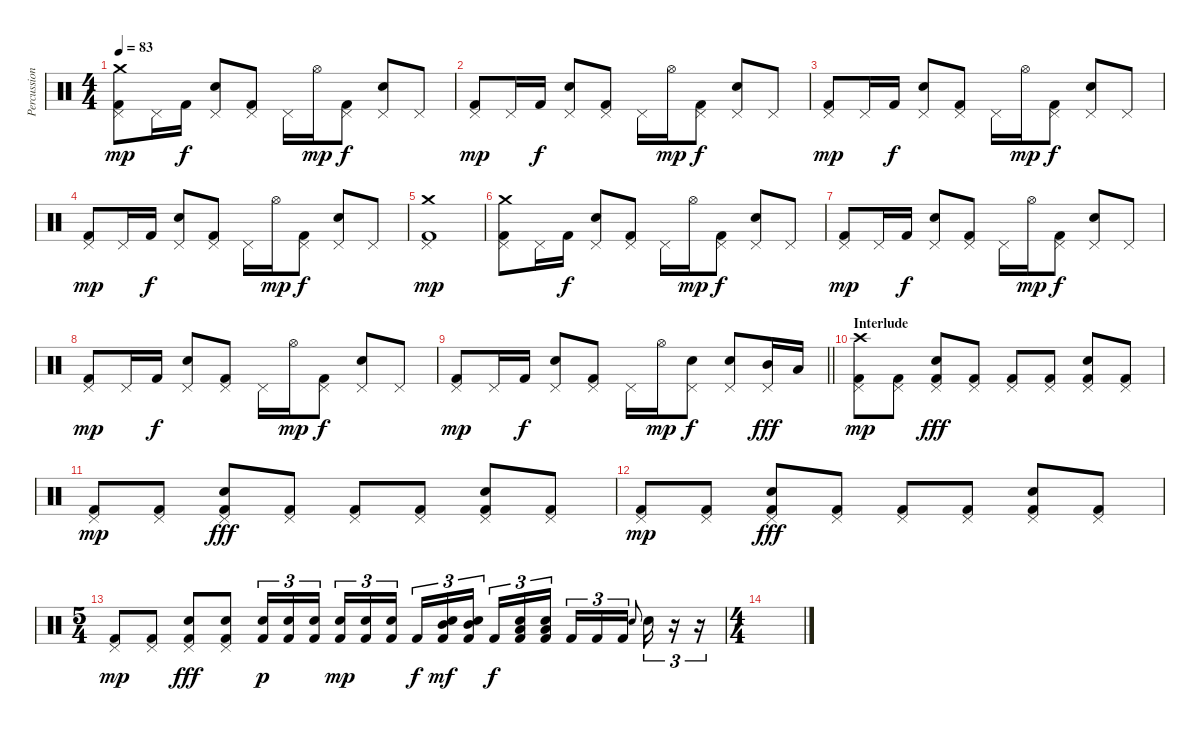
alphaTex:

\track ("Percussion" "Percussion") {instrument percussion}
\staff {score}
\articulation defaults
\ts (4 4)
\tempo 83
\clef neutral
\ks c
("Pedal Hi-Hat (hit)" "Kick (hit) 2" "Crash medium (hit)").8{dy mp} "Pedal Hi-Hat (hit)".16 "Kick (hit) 2".16{dy f} ("Pedal Hi-Hat (hit)" "Electric Snare (hit)").8 ("Pedal Hi-Hat (hit)" "Kick (hit) 2").8 "Pedal Hi-Hat (hit)".16 "Hi-Hat (open)".16{dy mp} ("Pedal Hi-Hat (hit)" "Kick (hit) 2").8{dy f} ("Pedal Hi-Hat (hit)" "Electric Snare (hit)").8 "Pedal Hi-Hat (hit)".8 |
("Pedal Hi-Hat (hit)" "Kick (hit) 2").8{dy mp} "Pedal Hi-Hat (hit)".16 "Kick (hit) 2".16{dy f} ("Pedal Hi-Hat (hit)" "Electric Snare (hit)").8 ("Pedal Hi-Hat (hit)" "Kick (hit) 2").8 "Pedal Hi-Hat (hit)".16 "Hi-Hat (open)".16{dy mp} ("Pedal Hi-Hat (hit)" "Kick (hit) 2").8{dy f} ("Pedal Hi-Hat (hit)" "Electric Snare (hit)").8 "Pedal Hi-Hat (hit)".8 |
("Pedal Hi-Hat (hit)" "Kick (hit) 2").8{dy mp} "Pedal Hi-Hat (hit)".16 "Kick (hit) 2".16{dy f} ("Pedal Hi-Hat (hit)" "Electric Snare (hit)").8 ("Pedal Hi-Hat (hit)" "Kick (hit) 2").8 "Pedal Hi-Hat (hit)".16 "Hi-Hat (open)".16{dy mp} ("Pedal Hi-Hat (hit)" "Kick (hit) 2").8{dy f} ("Pedal Hi-Hat (hit)" "Electric Snare (hit)").8 "Pedal Hi-Hat (hit)".8 |
("Pedal Hi-Hat (hit)" "Kick (hit) 2").8{dy mp} "Pedal Hi-Hat (hit)".16 "Kick (hit) 2".16{dy f} ("Pedal Hi-Hat (hit)" "Electric Snare (hit)").8 ("Pedal Hi-Hat (hit)" "Kick (hit) 2").8 "Pedal Hi-Hat (hit)".16 "Hi-Hat (open)".16{dy mp} ("Pedal Hi-Hat (hit)" "Kick (hit) 2").8{dy f} ("Pedal Hi-Hat (hit)" "Electric Snare (hit)").8 "Pedal Hi-Hat (hit)".8 |
("Pedal Hi-Hat (hit)" "Kick (hit) 2" "Crash medium (hit)").1{dy mp} |
("Pedal Hi-Hat (hit)" "Kick (hit) 2" "Crash medium (hit)").8 "Pedal Hi-Hat (hit)".16 "Kick (hit) 2".16{dy f} ("Pedal Hi-Hat (hit)" "Electric Snare (hit)").8 ("Pedal Hi-Hat (hit)" "Kick (hit) 2").8 "Pedal Hi-Hat (hit)".16 "Hi-Hat (open)".16{dy mp} ("Pedal Hi-Hat (hit)" "Kick (hit) 2").8{dy f} ("Pedal Hi-Hat (hit)" "Electric Snare (hit)").8 "Pedal Hi-Hat (hit)".8 |
("Pedal Hi-Hat (hit)" "Kick (hit) 2").8{dy mp} "Pedal Hi-Hat (hit)".16 "Kick (hit) 2".16{dy f} ("Pedal Hi-Hat (hit)" "Electric Snare (hit)").8 ("Pedal Hi-Hat (hit)" "Kick (hit) 2").8 "Pedal Hi-Hat (hit)".16 "Hi-Hat (open)".16{dy mp} ("Pedal Hi-Hat (hit)" "Kick (hit) 2").8{dy f} ("Pedal Hi-Hat (hit)" "Electric Snare (hit)").8 "Pedal Hi-Hat (hit)".8 |
("Pedal Hi-Hat (hit)" "Kick (hit) 2").8{dy mp} "Pedal Hi-Hat (hit)".16 "Kick (hit) 2".16{dy f} ("Pedal Hi-Hat (hit)" "Electric Snare (hit)").8 ("Pedal Hi-Hat (hit)" "Kick (hit) 2").8 "Pedal Hi-Hat (hit)".16 "Hi-Hat (open)".16{dy mp} ("Pedal Hi-Hat (hit)" "Kick (hit) 2").8{dy f} ("Pedal Hi-Hat (hit)" "Electric Snare (hit)").8 "Pedal Hi-Hat (hit)".8 |
\barLineRight lightlight
("Pedal Hi-Hat (hit)" "Kick (hit) 2").8{dy mp} "Pedal Hi-Hat (hit)".16 "Kick (hit) 2".16{dy f} ("Pedal Hi-Hat (hit)" "Electric Snare (hit)").8 ("Pedal Hi-Hat (hit)" "Kick (hit) 2").8 "Pedal Hi-Hat (hit)".16 "Hi-Hat (open)".16{dy mp} ("Pedal Hi-Hat (hit)" "Electric Snare (hit)").8{dy f} ("Pedal Hi-Hat (hit)" "Electric Snare (hit)").8 ("Pedal Hi-Hat (hit)" "Mid Tom (hit)").16{dy fff} "Low Tom (hit)".16 |
\section ("" "Interlude")
("Pedal Hi-Hat (hit)" "Kick (hit) 2" "Crash high (hit)").8{dy mp} ("Pedal Hi-Hat (hit)" "Kick (hit) 2").8 ("Pedal Hi-Hat (hit)" "Kick (hit) 2" "Electric Snare (hit)").8{dy fff} ("Pedal Hi-Hat (hit)" "Kick (hit) 2").8 ("Pedal Hi-Hat (hit)" "Kick (hit) 2").8 ("Pedal Hi-Hat (hit)" "Kick (hit) 2").8 ("Pedal Hi-Hat (hit)" "Kick (hit) 2" "Electric Snare (hit)").8 ("Pedal Hi-Hat (hit)" "Kick (hit) 2").8 |
("Pedal Hi-Hat (hit)" "Kick (hit) 2").8{dy mp} ("Pedal Hi-Hat (hit)" "Kick (hit) 2").8 ("Pedal Hi-Hat (hit)" "Kick (hit) 2" "Electric Snare (hit)").8{dy fff} ("Pedal Hi-Hat (hit)" "Kick (hit) 2").8 ("Pedal Hi-Hat (hit)" "Kick (hit) 2").8 ("Pedal Hi-Hat (hit)" "Kick (hit) 2").8 ("Pedal Hi-Hat (hit)" "Kick (hit) 2" "Electric Snare (hit)").8 ("Pedal Hi-Hat (hit)" "Kick (hit) 2").8 |
("Pedal Hi-Hat (hit)" "Kick (hit) 2").8{dy mp} ("Pedal Hi-Hat (hit)" "Kick (hit) 2").8 ("Pedal Hi-Hat (hit)" "Kick (hit) 2" "Electric Snare (hit)").8{dy fff} ("Pedal Hi-Hat (hit)" "Kick (hit) 2").8 ("Pedal Hi-Hat (hit)" "Kick (hit) 2").8 ("Pedal Hi-Hat (hit)" "Kick (hit) 2").8 ("Pedal Hi-Hat (hit)" "Kick (hit) 2" "Electric Snare (hit)").8 ("Pedal Hi-Hat (hit)" "Kick (hit) 2").8 |
\ts (5 4)
("Pedal Hi-Hat (hit)" "Kick (hit) 2").8{dy mp} ("Pedal Hi-Hat (hit)" "Kick (hit) 2").8 ("Pedal Hi-Hat (hit)" "Kick (hit) 2" "Electric Snare (hit)").8{dy fff} ("Pedal Hi-Hat (hit)" "Kick (hit) 2" "Electric Snare (hit)").8 ("Electric Snare (hit)" "Kick (hit) 2").16{tu (3 2) dy p} ("Electric Snare (hit)" "Kick (hit) 2").16{tu (3 2)} ("Electric Snare (hit)" "Kick (hit) 2").16{tu (3 2) beam splitsecondary} ("Electric Snare (hit)" "Kick (hit) 2").16{tu (3 2) dy mp} ("Electric Snare (hit)" "Kick (hit) 2").16{tu (3 2)} ("Electric Snare (hit)" "Kick (hit) 2").16{tu (3 2)} "Kick (hit) 2".16{tu (3 2) dy f} ("Electric Snare (hit)" "Kick (hit) 2" "Mid Tom (hit)").16{tu (3 2) dy mf} ("Electric Snare (hit)" "Kick (hit) 2" "Mid Tom (hit)").16{tu (3 2) beam splitsecondary} "Kick (hit) 2".16{tu (3 2) dy f} ("Electric Snare (hit)" "Kick (hit) 2" "Low Tom (hit)").16{tu (3 2)} ("Electric Snare (hit)" "Kick (hit) 2" "Low Tom (hit)").16{tu (3 2)} "Kick (hit) 2".16{tu (3 2)} "Kick (hit) 2".16{tu (3 2)} "Kick (hit) 2".16{tu (3 2)} "Electric Snare (hit)".8{gr onbeat beam splitsecondary} "Electric Snare (hit)".16{tu (3 2)} r.16{tu (3 2)} r.16{tu (3 2)} |
\ts (4 4)
